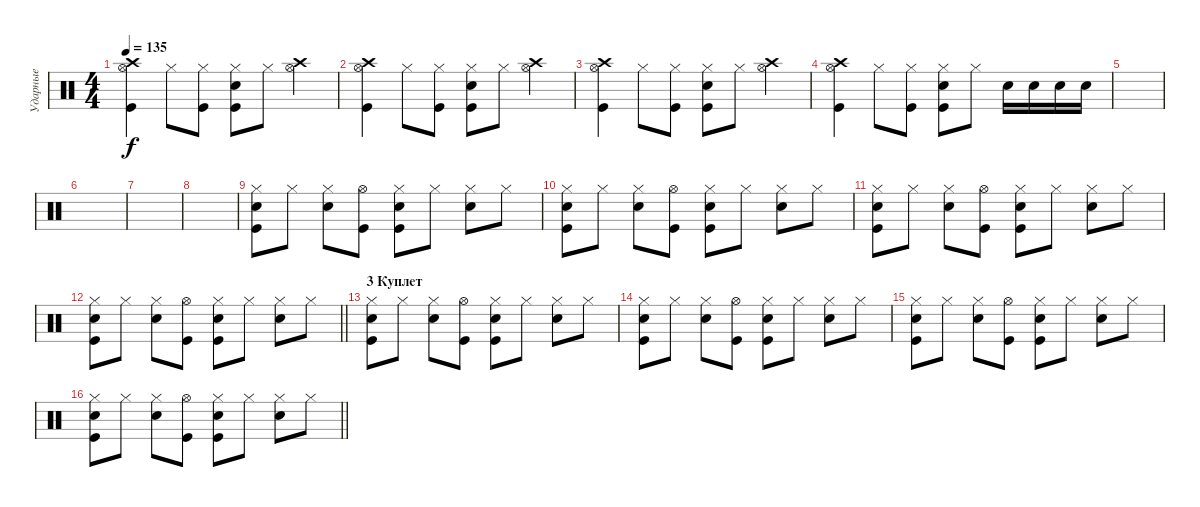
\track ("Ударные" "Ударные") {instrument percussion}
\staff {score}
\articulation defaults
\ts (4 4)
\tempo 135
\clef neutral
\ks c
("Hi-Hat (open)" "Crash high (hit)" "Kick (hit)").4{dy f} "Hi-Hat (closed)".8 ("Hi-Hat (closed)" "Kick (hit)").8 ("Hi-Hat (closed)" "Snare (hit) 2" "Kick (hit)").8 "Hi-Hat (closed)".8 ("Hi-Hat (open)" "Crash high (hit)").4 |
("Hi-Hat (open)" "Crash high (hit)" "Kick (hit)").4 "Hi-Hat (closed)".8 ("Hi-Hat (closed)" "Kick (hit)").8 ("Hi-Hat (closed)" "Snare (hit) 2" "Kick (hit)").8 "Hi-Hat (closed)".8 ("Hi-Hat (open)" "Crash high (hit)").4 |
("Hi-Hat (open)" "Crash high (hit)" "Kick (hit)").4 "Hi-Hat (closed)".8 ("Hi-Hat (closed)" "Kick (hit)").8 ("Hi-Hat (closed)" "Snare (hit) 2" "Kick (hit)").8 "Hi-Hat (closed)".8 ("Hi-Hat (open)" "Crash high (hit)").4 |
("Hi-Hat (open)" "Crash high (hit)" "Kick (hit)").4 "Hi-Hat (closed)".8 ("Hi-Hat (closed)" "Kick (hit)").8 ("Hi-Hat (closed)" "Snare (hit) 2" "Kick (hit)").8 "Hi-Hat (closed)".8 "Snare (hit) 2".16 "Snare (hit) 2".16 "Snare (hit) 2".16 "Snare (hit) 2".16 |
|
|
|
|
("Hi-Hat (closed)" "Kick (hit)" "Snare (hit) 2").8 "Hi-Hat (closed)".8 ("Hi-Hat (closed)" "Snare (hit) 2").8 ("Hi-Hat (open)" "Kick (hit)").8 ("Hi-Hat (closed)" "Snare (hit) 2" "Kick (hit)").8 "Hi-Hat (closed)".8 ("Hi-Hat (closed)" "Snare (hit) 2").8 "Hi-Hat (closed)".8 |
("Hi-Hat (closed)" "Kick (hit)" "Snare (hit) 2").8 "Hi-Hat (closed)".8 ("Hi-Hat (closed)" "Snare (hit) 2").8 ("Hi-Hat (open)" "Kick (hit)").8 ("Hi-Hat (closed)" "Snare (hit) 2" "Kick (hit)").8 "Hi-Hat (closed)".8 ("Hi-Hat (closed)" "Snare (hit) 2").8 "Hi-Hat (closed)".8 |
("Hi-Hat (closed)" "Kick (hit)" "Snare (hit) 2").8 "Hi-Hat (closed)".8 ("Hi-Hat (closed)" "Snare (hit) 2").8 ("Hi-Hat (open)" "Kick (hit)").8 ("Hi-Hat (closed)" "Snare (hit) 2" "Kick (hit)").8 "Hi-Hat (closed)".8 ("Hi-Hat (closed)" "Snare (hit) 2").8 "Hi-Hat (closed)".8 |
\barLineRight lightlight
("Hi-Hat (closed)" "Kick (hit)" "Snare (hit) 2").8 "Hi-Hat (closed)".8 ("Hi-Hat (closed)" "Snare (hit) 2").8 ("Hi-Hat (open)" "Kick (hit)").8 ("Hi-Hat (closed)" "Snare (hit) 2" "Kick (hit)").8 "Hi-Hat (closed)".8 ("Hi-Hat (closed)" "Snare (hit) 2").8 "Hi-Hat (closed)".8 |
\section ("" "3 Куплет")
("Hi-Hat (closed)" "Kick (hit)" "Snare (hit) 2").8 "Hi-Hat (closed)".8 ("Hi-Hat (closed)" "Snare (hit) 2").8 ("Hi-Hat (open)" "Kick (hit)").8 ("Hi-Hat (closed)" "Snare (hit) 2" "Kick (hit)").8 "Hi-Hat (closed)".8 ("Hi-Hat (closed)" "Snare (hit) 2").8 "Hi-Hat (closed)".8 |
("Hi-Hat (closed)" "Kick (hit)" "Snare (hit) 2").8 "Hi-Hat (closed)".8 ("Hi-Hat (closed)" "Snare (hit) 2").8 ("Hi-Hat (open)" "Kick (hit)").8 ("Hi-Hat (closed)" "Snare (hit) 2" "Kick (hit)").8 "Hi-Hat (closed)".8 ("Hi-Hat (closed)" "Snare (hit) 2").8 "Hi-Hat (closed)".8 |
("Hi-Hat (closed)" "Kick (hit)" "Snare (hit) 2").8 "Hi-Hat (closed)".8 ("Hi-Hat (closed)" "Snare (hit) 2").8 ("Hi-Hat (open)" "Kick (hit)").8 ("Hi-Hat (closed)" "Snare (hit) 2" "Kick (hit)").8 "Hi-Hat (closed)".8 ("Hi-Hat (closed)" "Snare (hit) 2").8 "Hi-Hat (closed)".8 |
\barLineRight lightlight
("Hi-Hat (closed)" "Kick (hit)" "Snare (hit) 2").8 "Hi-Hat (closed)".8 ("Hi-Hat (closed)" "Snare (hit) 2").8 ("Hi-Hat (open)" "Kick (hit)").8 ("Hi-Hat (closed)" "Snare (hit) 2" "Kick (hit)").8 "Hi-Hat (closed)".8 ("Hi-Hat (closed)" "Snare (hit) 2").8 "Hi-Hat (closed)".8
